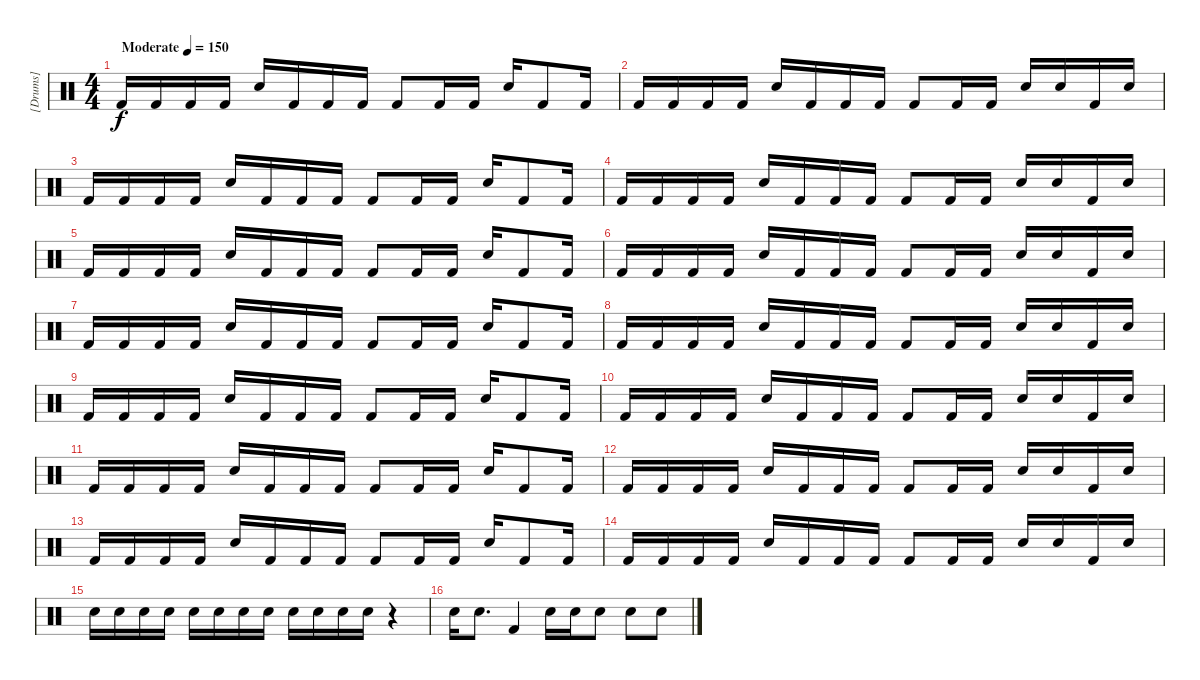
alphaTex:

\track ("[Drums]" "[Drums]") {instrument percussion}
\staff {score}
\articulation defaults
\ts (4 4)
\tempo (150 "Moderate")
\clef neutral
\ks c "Kick (hit) 2".16{dy f} "Kick (hit) 2".16 "Kick (hit) 2".16 "Kick (hit) 2".16 "Electric Snare (hit)".16 "Kick (hit) 2".16 "Kick (hit) 2".16 "Kick (hit) 2".16 "Kick (hit) 2".8 "Kick (hit) 2".16 "Kick (hit) 2".16 "Electric Snare (hit)".16 "Kick (hit) 2".8 "Kick (hit) 2".16
|
"Kick (hit) 2".16 "Kick (hit) 2".16 "Kick (hit) 2".16 "Kick (hit) 2".16 "Electric Snare (hit)".16 "Kick (hit) 2".16 "Kick (hit) 2".16 "Kick (hit) 2".16 "Kick (hit) 2".8 "Kick (hit) 2".16 "Kick (hit) 2".16 "Electric Snare (hit)".16 "Electric Snare (hit)".16 "Kick (hit) 2".16 "Electric Snare (hit)".16 |
"Kick (hit) 2".16 "Kick (hit) 2".16 "Kick (hit) 2".16 "Kick (hit) 2".16 "Electric Snare (hit)".16 "Kick (hit) 2".16 "Kick (hit) 2".16 "Kick (hit) 2".16 "Kick (hit) 2".8 "Kick (hit) 2".16 "Kick (hit) 2".16 "Electric Snare (hit)".16 "Kick (hit) 2".8 "Kick (hit) 2".16 |
"Kick (hit) 2".16 "Kick (hit) 2".16 "Kick (hit) 2".16 "Kick (hit) 2".16 "Electric Snare (hit)".16 "Kick (hit) 2".16 "Kick (hit) 2".16 "Kick (hit) 2".16 "Kick (hit) 2".8 "Kick (hit) 2".16 "Kick (hit) 2".16 "Electric Snare (hit)".16 "Electric Snare (hit)".16 "Kick (hit) 2".16 "Electric Snare (hit)".16 |
"Kick (hit) 2".16 "Kick (hit) 2".16 "Kick (hit) 2".16 "Kick (hit) 2".16 "Electric Snare (hit)".16 "Kick (hit) 2".16 "Kick (hit) 2".16 "Kick (hit) 2".16 "Kick (hit) 2".8 "Kick (hit) 2".16 "Kick (hit) 2".16 "Electric Snare (hit)".16 "Kick (hit) 2".8 "Kick (hit) 2".16 |
"Kick (hit) 2".16 "Kick (hit) 2".16 "Kick (hit) 2".16 "Kick (hit) 2".16 "Electric Snare (hit)".16 "Kick (hit) 2".16 "Kick (hit) 2".16 "Kick (hit) 2".16 "Kick (hit) 2".8 "Kick (hit) 2".16 "Kick (hit) 2".16 "Electric Snare (hit)".16 "Electric Snare (hit)".16 "Kick (hit) 2".16 "Electric Snare (hit)".16 |
"Kick (hit) 2".16 "Kick (hit) 2".16 "Kick (hit) 2".16 "Kick (hit) 2".16 "Electric Snare (hit)".16 "Kick (hit) 2".16 "Kick (hit) 2".16 "Kick (hit) 2".16 "Kick (hit) 2".8 "Kick (hit) 2".16 "Kick (hit) 2".16 "Electric Snare (hit)".16 "Kick (hit) 2".8 "Kick (hit) 2".16 |
"Kick (hit) 2".16 "Kick (hit) 2".16 "Kick (hit) 2".16 "Kick (hit) 2".16 "Electric Snare (hit)".16 "Kick (hit) 2".16 "Kick (hit) 2".16 "Kick (hit) 2".16 "Kick (hit) 2".8 "Kick (hit) 2".16 "Kick (hit) 2".16 "Electric Snare (hit)".16 "Electric Snare (hit)".16 "Kick (hit) 2".16 "Electric Snare (hit)".16 |
"Kick (hit) 2".16 "Kick (hit) 2".16 "Kick (hit) 2".16 "Kick (hit) 2".16 "Electric Snare (hit)".16 "Kick (hit) 2".16 "Kick (hit) 2".16 "Kick (hit) 2".16 "Kick (hit) 2".8 "Kick (hit) 2".16 "Kick (hit) 2".16 "Electric Snare (hit)".16 "Kick (hit) 2".8 "Kick (hit) 2".16 |
"Kick (hit) 2".16 "Kick (hit) 2".16 "Kick (hit) 2".16 "Kick (hit) 2".16 "Electric Snare (hit)".16 "Kick (hit) 2".16 "Kick (hit) 2".16 "Kick (hit) 2".16 "Kick (hit) 2".8 "Kick (hit) 2".16 "Kick (hit) 2".16 "Electric Snare (hit)".16 "Electric Snare (hit)".16 "Kick (hit) 2".16 "Electric Snare (hit)".16 |
"Kick (hit) 2".16 "Kick (hit) 2".16 "Kick (hit) 2".16 "Kick (hit) 2".16 "Electric Snare (hit)".16 "Kick (hit) 2".16 "Kick (hit) 2".16 "Kick (hit) 2".16 "Kick (hit) 2".8 "Kick (hit) 2".16 "Kick (hit) 2".16 "Electric Snare (hit)".16 "Kick (hit) 2".8 "Kick (hit) 2".16 |
"Kick (hit) 2".16 "Kick (hit) 2".16 "Kick (hit) 2".16 "Kick (hit) 2".16 "Electric Snare (hit)".16 "Kick (hit) 2".16 "Kick (hit) 2".16 "Kick (hit) 2".16 "Kick (hit) 2".8 "Kick (hit) 2".16 "Kick (hit) 2".16 "Electric Snare (hit)".16 "Electric Snare (hit)".16 "Kick (hit) 2".16 "Electric Snare (hit)".16 |
"Kick (hit) 2".16 "Kick (hit) 2".16 "Kick (hit) 2".16 "Kick (hit) 2".16 "Electric Snare (hit)".16 "Kick (hit) 2".16 "Kick (hit) 2".16 "Kick (hit) 2".16 "Kick (hit) 2".8 "Kick (hit) 2".16 "Kick (hit) 2".16 "Electric Snare (hit)".16 "Kick (hit) 2".8 "Kick (hit) 2".16 |
"Kick (hit) 2".16 "Kick (hit) 2".16 "Kick (hit) 2".16 "Kick (hit) 2".16 "Electric Snare (hit)".16 "Kick (hit) 2".16 "Kick (hit) 2".16 "Kick (hit) 2".16 "Kick (hit) 2".8 "Kick (hit) 2".16 "Kick (hit) 2".16 "Electric Snare (hit)".16 "Electric Snare (hit)".16 "Kick (hit) 2".16 "Electric Snare (hit)".16 |
"Electric Snare (hit)".16 "Electric Snare (hit)".16 "Electric Snare (hit)".16 "Electric Snare (hit)".16 "Electric Snare (hit)".16 "Electric Snare (hit)".16 "Electric Snare (hit)".16 "Electric Snare (hit)".16 "Electric Snare (hit)".16 "Electric Snare (hit)".16 "Electric Snare (hit)".16 "Electric Snare (hit)".16 r.4 |
"Electric Snare (hit)".16 "Electric Snare (hit)".8{d} "Kick (hit) 2".4 "Electric Snare (hit)".16 "Electric Snare (hit)".16 "Electric Snare (hit)".8 "Electric Snare (hit)".8 "Electric Snare (hit)".8
